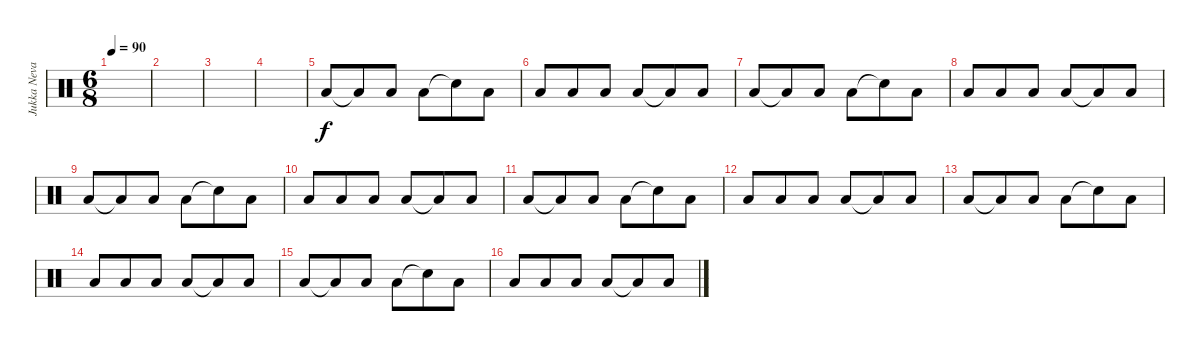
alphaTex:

\track ("Jukka Nevalainen" "Jukka Neva") {instrument percussion}
\staff {score}
\articulation defaults
\ts (6 8)
\tempo 90
\clef neutral
\ks c
|
|
|
|
"Low Floor Tom (hit)".8 "Low Floor Tom (hit)"{t}.8 "Low Floor Tom (hit)".8 "Low Floor Tom (hit)".8 "Snare (hit)"{t}.8 "Low Floor Tom (hit)".8 |
"Low Floor Tom (hit)".8 "Low Floor Tom (hit)".8 "Low Floor Tom (hit)".8 "Low Floor Tom (hit)".8 "Low Floor Tom (hit)"{t}.8 "Low Floor Tom (hit)".8 |
"Low Floor Tom (hit)".8 "Low Floor Tom (hit)"{t}.8 "Low Floor Tom (hit)".8 "Low Floor Tom (hit)".8 "Snare (hit)"{t}.8 "Low Floor Tom (hit)".8 |
"Low Floor Tom (hit)".8 "Low Floor Tom (hit)".8 "Low Floor Tom (hit)".8 "Low Floor Tom (hit)".8 "Low Floor Tom (hit)"{t}.8 "Low Floor Tom (hit)".8 |
"Low Floor Tom (hit)".8 "Low Floor Tom (hit)"{t}.8 "Low Floor Tom (hit)".8 "Low Floor Tom (hit)".8 "Snare (hit)"{t}.8 "Low Floor Tom (hit)".8 |
"Low Floor Tom (hit)".8 "Low Floor Tom (hit)".8 "Low Floor Tom (hit)".8 "Low Floor Tom (hit)".8 "Low Floor Tom (hit)"{t}.8 "Low Floor Tom (hit)".8 |
"Low Floor Tom (hit)".8 "Low Floor Tom (hit)"{t}.8 "Low Floor Tom (hit)".8 "Low Floor Tom (hit)".8 "Snare (hit)"{t}.8 "Low Floor Tom (hit)".8 |
"Low Floor Tom (hit)".8 "Low Floor Tom (hit)".8 "Low Floor Tom (hit)".8 "Low Floor Tom (hit)".8 "Low Floor Tom (hit)"{t}.8 "Low Floor Tom (hit)".8 |
"Low Floor Tom (hit)".8 "Low Floor Tom (hit)"{t}.8 "Low Floor Tom (hit)".8 "Low Floor Tom (hit)".8 "Snare (hit)"{t}.8 "Low Floor Tom (hit)".8 |
"Low Floor Tom (hit)".8 "Low Floor Tom (hit)".8 "Low Floor Tom (hit)".8 "Low Floor Tom (hit)".8 "Low Floor Tom (hit)"{t}.8 "Low Floor Tom (hit)".8 |
"Low Floor Tom (hit)".8 "Low Floor Tom (hit)"{t}.8 "Low Floor Tom (hit)".8 "Low Floor Tom (hit)".8 "Snare (hit)"{t}.8 "Low Floor Tom (hit)".8 |
"Low Floor Tom (hit)".8 "Low Floor Tom (hit)".8 "Low Floor Tom (hit)".8 "Low Floor Tom (hit)".8 "Low Floor Tom (hit)"{t}.8 "Low Floor Tom (hit)".8
